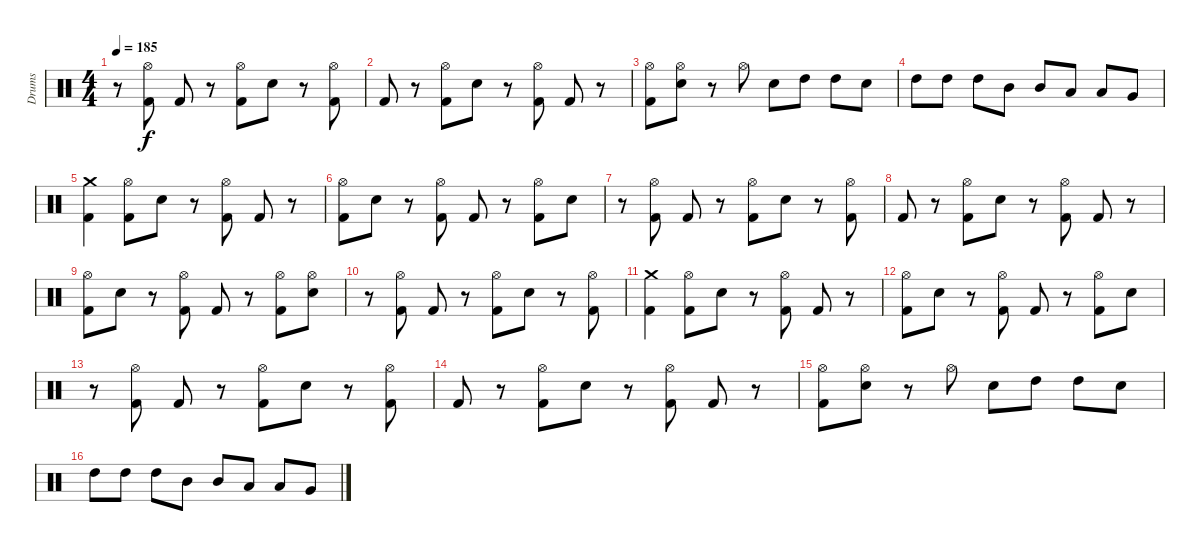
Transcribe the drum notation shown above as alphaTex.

\track ("Drums" "Drums") {instrument percussion}
\staff {score}
\articulation defaults
\ts (4 4)
\tempo 185
\clef neutral
\ks c
r.8{dy f} ("Hi-Hat (open)" "Kick (hit) 2").8 "Kick (hit) 2".8 r.8 ("Hi-Hat (open)" "Kick (hit) 2").8 "Electric Snare (hit)".8 r.8 ("Hi-Hat (open)" "Kick (hit) 2").8 |
"Kick (hit) 2".8 r.8 ("Hi-Hat (open)" "Kick (hit) 2").8 "Electric Snare (hit)".8 r.8 ("Hi-Hat (open)" "Kick (hit) 2").8 "Kick (hit) 2".8 r.8 |
("Hi-Hat (open)" "Kick (hit) 2").8 ("Hi-Hat (open)" "Electric Snare (hit)").8 r.8 "Hi-Hat (open)".8 "Electric Snare (hit)".8 "High Tom (hit)".8 "High Tom (hit)".8 "Electric Snare (hit)".8 |
"High Tom (hit)".8 "High Tom (hit)".8 "High Tom (hit)".8 "Mid Tom (hit)".8 "Mid Tom (hit)".8 "Low Tom (hit)".8 "Low Tom (hit)".8 "Very Low Tom (hit)".8 |
("Crash medium (hit)" "Kick (hit) 2").4 ("Hi-Hat (open)" "Kick (hit) 2").8 "Electric Snare (hit)".8 r.8 ("Hi-Hat (open)" "Kick (hit) 2").8 "Kick (hit) 2".8 r.8 |
("Hi-Hat (open)" "Kick (hit) 2").8 "Electric Snare (hit)".8 r.8 ("Hi-Hat (open)" "Kick (hit) 2").8 "Kick (hit) 2".8 r.8 ("Hi-Hat (open)" "Kick (hit) 2").8 "Electric Snare (hit)".8 |
r.8 ("Hi-Hat (open)" "Kick (hit) 2").8 "Kick (hit) 2".8 r.8 ("Hi-Hat (open)" "Kick (hit) 2").8 "Electric Snare (hit)".8 r.8 ("Hi-Hat (open)" "Kick (hit) 2").8 |
"Kick (hit) 2".8 r.8 ("Hi-Hat (open)" "Kick (hit) 2").8 "Electric Snare (hit)".8 r.8 ("Hi-Hat (open)" "Kick (hit) 2").8 "Kick (hit) 2".8 r.8 |
("Hi-Hat (open)" "Kick (hit) 2").8 "Electric Snare (hit)".8 r.8 ("Hi-Hat (open)" "Kick (hit) 2").8 "Kick (hit) 2".8 r.8 ("Hi-Hat (open)" "Kick (hit) 2").8 ("Hi-Hat (open)" "Electric Snare (hit)").8 |
r.8 ("Hi-Hat (open)" "Kick (hit) 2").8 "Kick (hit) 2".8 r.8 ("Hi-Hat (open)" "Kick (hit) 2").8 "Electric Snare (hit)".8 r.8 ("Hi-Hat (open)" "Kick (hit) 2").8 |
("Crash medium (hit)" "Kick (hit) 2").4 ("Hi-Hat (open)" "Kick (hit) 2").8 "Electric Snare (hit)".8 r.8 ("Hi-Hat (open)" "Kick (hit) 2").8 "Kick (hit) 2".8 r.8 |
("Hi-Hat (open)" "Kick (hit) 2").8 "Electric Snare (hit)".8 r.8 ("Hi-Hat (open)" "Kick (hit) 2").8 "Kick (hit) 2".8 r.8 ("Hi-Hat (open)" "Kick (hit) 2").8 "Electric Snare (hit)".8 |
r.8 ("Hi-Hat (open)" "Kick (hit) 2").8 "Kick (hit) 2".8 r.8 ("Hi-Hat (open)" "Kick (hit) 2").8 "Electric Snare (hit)".8 r.8 ("Hi-Hat (open)" "Kick (hit) 2").8 |
"Kick (hit) 2".8 r.8 ("Hi-Hat (open)" "Kick (hit) 2").8 "Electric Snare (hit)".8 r.8 ("Hi-Hat (open)" "Kick (hit) 2").8 "Kick (hit) 2".8 r.8 |
("Hi-Hat (open)" "Kick (hit) 2").8 ("Hi-Hat (open)" "Electric Snare (hit)").8 r.8 "Hi-Hat (open)".8 "Electric Snare (hit)".8 "High Tom (hit)".8 "High Tom (hit)".8 "Electric Snare (hit)".8 |
"High Tom (hit)".8 "High Tom (hit)".8 "High Tom (hit)".8 "Mid Tom (hit)".8 "Mid Tom (hit)".8 "Low Tom (hit)".8 "Low Tom (hit)".8 "Very Low Tom (hit)".8
